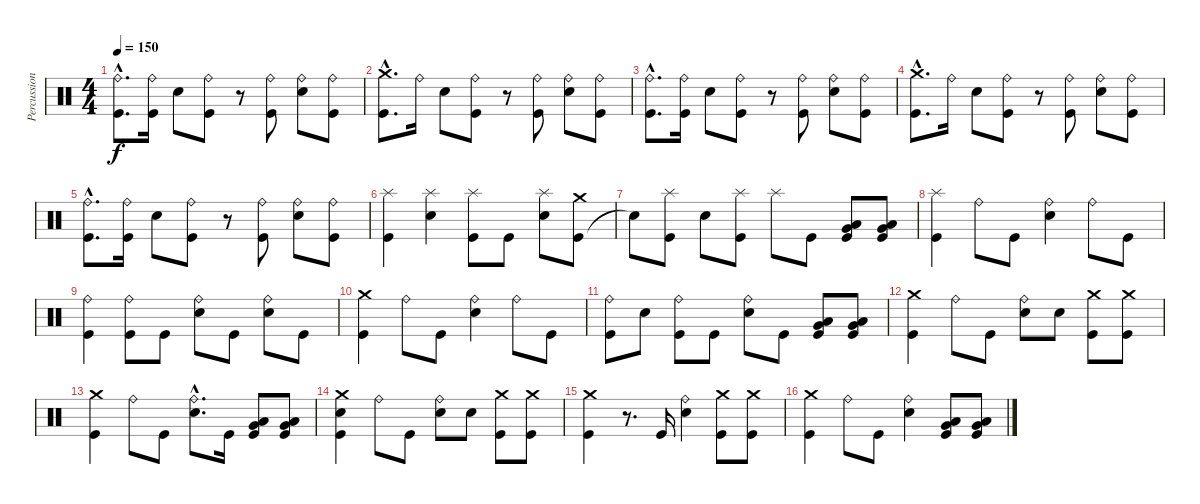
\track ("Percussions" "Percussion") {instrument percussion}
\staff {score}
\articulation defaults
\ts (4 4)
\tempo 150
\clef neutral
\ks c
("Kick (hit)"{hac} "Ride (bell)"{hac}).8{d dy f} ("Kick (hit)" "Ride (bell)").16 "Electric Snare (hit)".8 ("Kick (hit)" "Ride (bell)").8 r.8 ("Kick (hit)" "Ride (bell)").8 ("Electric Snare (hit)" "Ride (bell)").8 ("Kick (hit)" "Ride (bell)").8 |
("Kick (hit)"{hac} "Crash medium (hit)"{hac}).8{d} "Ride (bell)".16 "Electric Snare (hit)".8 ("Kick (hit)" "Ride (bell)").8 r.8 ("Kick (hit)" "Ride (bell)").8 ("Electric Snare (hit)" "Ride (bell)").8 ("Kick (hit)" "Ride (bell)").8 |
("Kick (hit)"{hac} "Ride (bell)"{hac}).8{d} ("Kick (hit)" "Ride (bell)").16 "Electric Snare (hit)".8 ("Kick (hit)" "Ride (bell)").8 r.8 ("Kick (hit)" "Ride (bell)").8 ("Electric Snare (hit)" "Ride (bell)").8 ("Kick (hit)" "Ride (bell)").8 |
("Kick (hit)"{hac} "Crash medium (hit)"{hac}).8{d} "Ride (bell)".16 "Electric Snare (hit)".8 ("Kick (hit)" "Ride (bell)").8 r.8 ("Kick (hit)" "Ride (bell)").8 ("Electric Snare (hit)" "Ride (bell)").8 ("Kick (hit)" "Ride (bell)").8 |
("Kick (hit)"{hac} "Ride (bell)"{hac}).8{d} ("Kick (hit)" "Ride (bell)").16 "Electric Snare (hit)".8 ("Kick (hit)" "Ride (bell)").8 r.8 ("Kick (hit)" "Ride (bell)").8 ("Electric Snare (hit)" "Ride (bell)").8 ("Kick (hit)" "Ride (bell)").8 |
("Kick (hit)" "Splash (hit)").4 ("Electric Snare (hit)" "Splash (hit)").4 ("Kick (hit)" "Splash (hit)").8 "Kick (hit)".8 ("Electric Snare (hit)" "Splash (hit)").8 ("Kick (hit)" "Crash medium (hit)").8 |
"Snare (hit)"{t}.8 ("Kick (hit)" "Splash (hit)").8 "Electric Snare (hit)".8 ("Kick (hit)" "Splash (hit)").8 "Splash (hit)".8 "Kick (hit)".8 ("Kick (hit)" "Low Tom (hit)" "Very Low Tom (hit)").8 ("Kick (hit)" "Very Low Tom (hit)" "Low Floor Tom (hit)").8 |
("Kick (hit)" "Splash (hit)").4 "Ride (bell)".8 "Kick (hit)".8 ("Electric Snare (hit)" "Ride (bell)").4 "Ride (bell)".8 "Kick (hit)".8 |
("Kick (hit)" "Ride (bell)").4 ("Kick (hit)" "Ride (bell)").8 "Kick (hit)".8 ("Electric Snare (hit)" "Ride (bell)").8 "Kick (hit)".8 ("Electric Snare (hit)" "Ride (bell)").8 "Kick (hit)".8 |
("Kick (hit)" "Crash medium (hit)").4 "Ride (bell)".8 "Kick (hit)".8 ("Electric Snare (hit)" "Ride (bell)").4 "Ride (bell)".8 "Kick (hit)".8 |
("Kick (hit)" "Ride (bell)").8 "Electric Snare (hit)".8 ("Kick (hit)" "Ride (bell)").8 "Kick (hit)".8 ("Electric Snare (hit)" "Ride (bell)").8 "Kick (hit)".8 ("Kick (hit)" "Low Tom (hit)" "Very Low Tom (hit)").8 ("Kick (hit)" "Very Low Tom (hit)" "Low Floor Tom (hit)").8 |
("Kick (hit)" "Crash medium (hit)").4 "Ride (bell)".8 "Kick (hit)".8 ("Electric Snare (hit)" "Ride (bell)").8 "Electric Snare (hit)".8 ("Kick (hit)" "Crash medium (hit)").8 ("Kick (hit)" "Crash medium (hit)").8 |
("Kick (hit)" "Crash medium (hit)").4 "Ride (bell)".8 "Kick (hit)".8 ("Electric Snare (hit)"{hac} "Ride (bell)"{hac}).8{d} "Kick (hit)".16 ("Kick (hit)" "Low Tom (hit)" "Very Low Tom (hit)").8 ("Kick (hit)" "Very Low Tom (hit)" "Low Floor Tom (hit)").8 |
("Kick (hit)" "Electric Snare (hit)" "Crash medium (hit)").4 "Ride (bell)".8 "Kick (hit)".8 ("Electric Snare (hit)" "Ride (bell)").8 "Electric Snare (hit)".8 ("Kick (hit)" "Crash medium (hit)").8 ("Kick (hit)" "Crash medium (hit)").8 |
("Kick (hit)" "Crash medium (hit)").4 r.8{d} "Kick (hit)".16 ("Electric Snare (hit)" "Ride (bell)").4 ("Kick (hit)" "Crash medium (hit)").8 ("Kick (hit)" "Crash medium (hit)").8 |
("Kick (hit)" "Crash medium (hit)").4 "Ride (bell)".8 "Kick (hit)".8 ("Electric Snare (hit)" "Ride (bell)").4 ("Kick (hit)" "Low Tom (hit)" "Very Low Tom (hit)").8 ("Kick (hit)" "Very Low Tom (hit)" "Low Floor Tom (hit)").8
